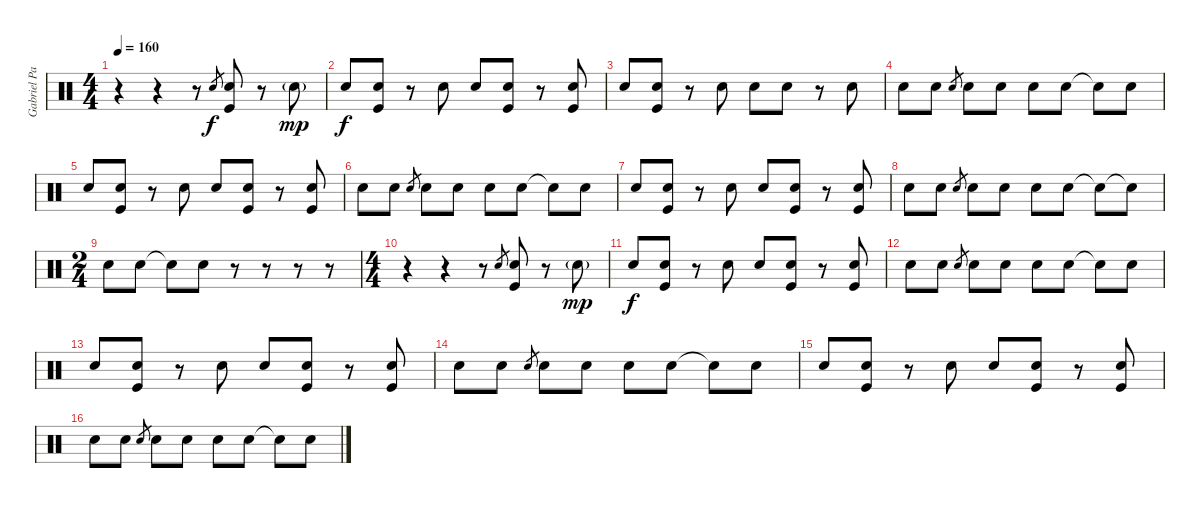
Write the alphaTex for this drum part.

\track ("Gabriel Parra" "Gabriel Pa") {instrument percussion}
\staff {score}
\articulation defaults
\ts (4 4)
\tempo 160
\clef neutral
\ks c
r.4{dy f} r.4 r.8 "Snare (hit) 2".8{gr} ("Snare (hit) 2" "Kick (hit)").8 r.8 "Snare (hit) 2"{g}.8{dy mp} |
"Snare (hit) 2".8{dy f} ("Snare (hit) 2" "Kick (hit)").8 r.8 "Snare (hit) 2".8 "Snare (hit) 2".8 ("Snare (hit) 2" "Kick (hit)").8 r.8 ("Snare (hit) 2" "Kick (hit)").8 |
"Snare (hit) 2".8 ("Snare (hit) 2" "Kick (hit)").8 r.8 "Snare (hit) 2".8 "Snare (hit) 2".8 "Snare (hit) 2".8 r.8 "Snare (hit) 2".8 |
"Snare (hit) 2".8 "Snare (hit) 2".8 "Snare (hit) 2".8{gr} "Snare (hit) 2".8 "Snare (hit) 2".8 "Snare (hit) 2".8 "Snare (hit) 2".8 "Snare (hit) 2"{t}.8 "Snare (hit) 2".8 |
"Snare (hit) 2".8 ("Snare (hit) 2" "Kick (hit)").8 r.8 "Snare (hit) 2".8 "Snare (hit) 2".8 ("Snare (hit) 2" "Kick (hit)").8 r.8 ("Snare (hit) 2" "Kick (hit)").8 |
"Snare (hit) 2".8 "Snare (hit) 2".8 "Snare (hit) 2".8{gr} "Snare (hit) 2".8 "Snare (hit) 2".8 "Snare (hit) 2".8 "Snare (hit) 2".8 "Snare (hit) 2"{t}.8 "Snare (hit) 2".8 |
"Snare (hit) 2".8 ("Snare (hit) 2" "Kick (hit)").8 r.8 "Snare (hit) 2".8 "Snare (hit) 2".8 ("Snare (hit) 2" "Kick (hit)").8 r.8 ("Snare (hit) 2" "Kick (hit)").8 |
"Snare (hit) 2".8 "Snare (hit) 2".8 "Snare (hit) 2".8{gr} "Snare (hit) 2".8 "Snare (hit) 2".8 "Snare (hit) 2".8 "Snare (hit) 2".8 "Snare (hit) 2"{t}.8 "Snare (hit)"{t}.8 |
\ts (2 4)
"Snare (hit) 2".8 "Snare (hit) 2".8 "Snare (hit)"{t}.8 "Snare (hit) 2".8 r.8 r.8 r.8 r.8 |
\ts (4 4)
r.4 r.4 r.8 "Snare (hit) 2".8{gr} ("Snare (hit) 2" "Kick (hit)").8 r.8 "Snare (hit) 2"{g}.8{dy mp} |
"Snare (hit) 2".8{dy f} ("Snare (hit) 2" "Kick (hit)").8 r.8 "Snare (hit) 2".8 "Snare (hit) 2".8 ("Snare (hit) 2" "Kick (hit)").8 r.8 ("Snare (hit) 2" "Kick (hit)").8 |
"Snare (hit) 2".8 "Snare (hit) 2".8 "Snare (hit) 2".8{gr} "Snare (hit) 2".8 "Snare (hit) 2".8 "Snare (hit) 2".8 "Snare (hit) 2".8 "Snare (hit) 2"{t}.8 "Snare (hit) 2".8 |
"Snare (hit) 2".8 ("Snare (hit) 2" "Kick (hit)").8 r.8 "Snare (hit) 2".8 "Snare (hit) 2".8 ("Snare (hit) 2" "Kick (hit)").8 r.8 ("Snare (hit) 2" "Kick (hit)").8 |
"Snare (hit) 2".8 "Snare (hit) 2".8 "Snare (hit) 2".8{gr} "Snare (hit) 2".8 "Snare (hit) 2".8 "Snare (hit) 2".8 "Snare (hit) 2".8 "Snare (hit) 2"{t}.8 "Snare (hit) 2".8 |
"Snare (hit) 2".8 ("Snare (hit) 2" "Kick (hit)").8 r.8 "Snare (hit) 2".8 "Snare (hit) 2".8 ("Snare (hit) 2" "Kick (hit)").8 r.8 ("Snare (hit) 2" "Kick (hit)").8 |
"Snare (hit) 2".8 "Snare (hit) 2".8 "Snare (hit) 2".8{gr} "Snare (hit) 2".8 "Snare (hit) 2".8 "Snare (hit) 2".8 "Snare (hit) 2".8 "Snare (hit) 2"{t}.8 "Snare (hit) 2".8
